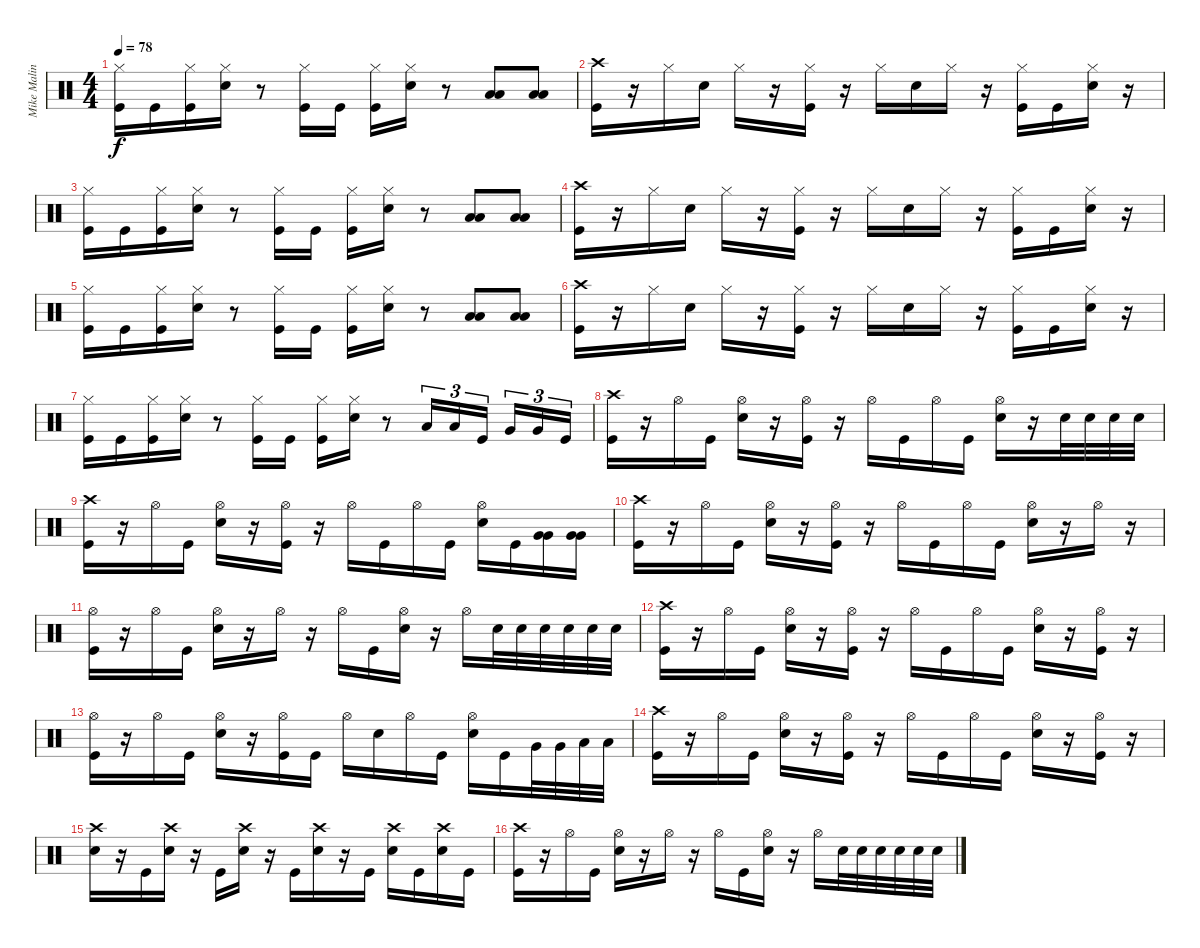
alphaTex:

\track ("Mike Malinin (Drums)" "Mike Malin") {instrument percussion}
\staff {score}
\articulation defaults
\ts (4 4)
\tempo 78
\clef neutral
\ks c
("Hi-Hat (closed)" "Kick (hit)").16{dy f} "Kick (hit)".16 ("Hi-Hat (closed)" "Kick (hit)").16 ("Hi-Hat (closed)" "Snare (hit) 2").16 r.8 ("Hi-Hat (closed)" "Kick (hit)").16 "Kick (hit)".16 ("Hi-Hat (closed)" "Kick (hit)").16 ("Hi-Hat (closed)" "Snare (hit) 2").16 r.8 ("Low Floor Tom (hit)" "Low Floor Tom (hit)").8 ("Low Floor Tom (hit)" "Low Floor Tom (hit)").8 |
("Crash high (hit)" "Kick (hit)").16 r.16 "Hi-Hat (closed)".16 "Snare (hit) 2".16 "Hi-Hat (closed)".16 r.16 ("Hi-Hat (closed)" "Kick (hit)").16 r.16 "Hi-Hat (closed)".16 "Snare (hit) 2".16 "Hi-Hat (closed)".16 r.16 ("Hi-Hat (closed)" "Kick (hit)").16 "Kick (hit)".16 ("Hi-Hat (closed)" "Snare (hit) 2").16 r.16 |
("Hi-Hat (closed)" "Kick (hit)").16 "Kick (hit)".16 ("Hi-Hat (closed)" "Kick (hit)").16 ("Hi-Hat (closed)" "Snare (hit) 2").16 r.8 ("Hi-Hat (closed)" "Kick (hit)").16 "Kick (hit)".16 ("Hi-Hat (closed)" "Kick (hit)").16 ("Hi-Hat (closed)" "Snare (hit) 2").16 r.8 ("Low Floor Tom (hit)" "Low Floor Tom (hit)").8 ("Low Floor Tom (hit)" "Low Floor Tom (hit)").8 |
("Crash high (hit)" "Kick (hit)").16 r.16 "Hi-Hat (closed)".16 "Snare (hit) 2".16 "Hi-Hat (closed)".16 r.16 ("Hi-Hat (closed)" "Kick (hit)").16 r.16 "Hi-Hat (closed)".16 "Snare (hit) 2".16 "Hi-Hat (closed)".16 r.16 ("Hi-Hat (closed)" "Kick (hit)").16 "Kick (hit)".16 ("Hi-Hat (closed)" "Snare (hit) 2").16 r.16 |
("Hi-Hat (closed)" "Kick (hit)").16 "Kick (hit)".16 ("Hi-Hat (closed)" "Kick (hit)").16 ("Hi-Hat (closed)" "Snare (hit) 2").16 r.8 ("Hi-Hat (closed)" "Kick (hit)").16 "Kick (hit)".16 ("Hi-Hat (closed)" "Kick (hit)").16 ("Hi-Hat (closed)" "Snare (hit) 2").16 r.8 ("Low Floor Tom (hit)" "Low Floor Tom (hit)").8 ("Low Floor Tom (hit)" "Low Floor Tom (hit)").8 |
("Crash high (hit)" "Kick (hit)").16 r.16 "Hi-Hat (closed)".16 "Snare (hit) 2".16 "Hi-Hat (closed)".16 r.16 ("Hi-Hat (closed)" "Kick (hit)").16 r.16 "Hi-Hat (closed)".16 "Snare (hit) 2".16 "Hi-Hat (closed)".16 r.16 ("Hi-Hat (closed)" "Kick (hit)").16 "Kick (hit)".16 ("Hi-Hat (closed)" "Snare (hit) 2").16 r.16 |
("Hi-Hat (closed)" "Kick (hit)").16 "Kick (hit)".16 ("Hi-Hat (closed)" "Kick (hit)").16 ("Hi-Hat (closed)" "Snare (hit) 2").16 r.8 ("Hi-Hat (closed)" "Kick (hit)").16 "Kick (hit)".16 ("Hi-Hat (closed)" "Kick (hit)").16 ("Hi-Hat (closed)" "Snare (hit) 2").16 r.8 "Low Tom (hit)".16{tu (3 2)} "Low Tom (hit)".16{tu (3 2)} "Kick (hit)".16{tu (3 2)} "Very Low Tom (hit)".16{tu (3 2)} "Very Low Tom (hit)".16{tu (3 2)} "Kick (hit)".16{tu (3 2)} |
("Crash high (hit)" "Kick (hit)").16 r.16 "Hi-Hat (open)".16 "Kick (hit)".16 ("Hi-Hat (open)" "Snare (hit) 2").16 r.16 ("Hi-Hat (open)" "Kick (hit)").16 r.16 "Hi-Hat (open)".16 "Kick (hit)".16 "Hi-Hat (open)".16 "Kick (hit)".16 ("Hi-Hat (open)" "Snare (hit) 2").16 r.16 "Snare (hit) 2".32 "Snare (hit) 2".32 "Snare (hit) 2".32 "Snare (hit) 2".32 |
("Crash high (hit)" "Kick (hit)").16 r.16 "Hi-Hat (open)".16 "Kick (hit)".16 ("Hi-Hat (open)" "Snare (hit) 2").16 r.16 ("Hi-Hat (open)" "Kick (hit)").16 r.16 "Hi-Hat (open)".16 "Kick (hit)".16 "Hi-Hat (open)".16 "Kick (hit)".16 ("Hi-Hat (open)" "Snare (hit) 2").16 "Kick (hit)".16 ("Very Low Tom (hit)" "Very Low Tom (hit)").16 ("Very Low Tom (hit)" "Very Low Tom (hit)").16 |
("Crash high (hit)" "Kick (hit)").16 r.16 "Hi-Hat (open)".16 "Kick (hit)".16 ("Hi-Hat (open)" "Snare (hit) 2").16 r.16 ("Hi-Hat (open)" "Kick (hit)").16 r.16 "Hi-Hat (open)".16 "Kick (hit)".16 "Hi-Hat (open)".16 "Kick (hit)".16 ("Hi-Hat (open)" "Snare (hit) 2").16 r.16 "Hi-Hat (open)".16 r.16 |
("Hi-Hat (open)" "Kick (hit)").16 r.16 "Hi-Hat (open)".16 "Kick (hit)".16 ("Hi-Hat (open)" "Snare (hit) 2").16 r.16 "Hi-Hat (open)".16 r.16 "Hi-Hat (open)".16 "Kick (hit)".16 ("Hi-Hat (open)" "Snare (hit) 2").16 r.16 "Hi-Hat (open)".16 "Snare (hit) 2".32 "Snare (hit) 2".32 "Snare (hit) 2".32 "Snare (hit) 2".32 "Snare (hit) 2".32 "Snare (hit) 2".32 |
("Crash high (hit)" "Kick (hit)").16 r.16 "Hi-Hat (open)".16 "Kick (hit)".16 ("Hi-Hat (open)" "Snare (hit) 2").16 r.16 ("Hi-Hat (open)" "Kick (hit)").16 r.16 "Hi-Hat (open)".16 "Kick (hit)".16 "Hi-Hat (open)".16 "Kick (hit)".16 ("Hi-Hat (open)" "Snare (hit) 2").16 r.16 ("Hi-Hat (open)" "Kick (hit)").16 r.16 |
("Hi-Hat (open)" "Kick (hit)").16 r.16 "Hi-Hat (open)".16 "Kick (hit)".16 ("Hi-Hat (open)" "Snare (hit) 2").16 r.16 ("Hi-Hat (open)" "Kick (hit)").16 "Kick (hit)".16 "Hi-Hat (open)".16 "Snare (hit) 2".16 "Hi-Hat (open)".16 "Kick (hit)".16 ("Hi-Hat (open)" "Snare (hit) 2").16 "Kick (hit)".16 "Very Low Tom (hit)".32 "Very Low Tom (hit)".32 "Low Floor Tom (hit)".32 "Low Floor Tom (hit)".32 |
("Crash high (hit)" "Kick (hit)").16 r.16 "Hi-Hat (open)".16 "Kick (hit)".16 ("Hi-Hat (open)" "Snare (hit) 2").16 r.16 ("Hi-Hat (open)" "Kick (hit)").16 r.16 "Hi-Hat (open)".16 "Kick (hit)".16 "Hi-Hat (open)".16 "Kick (hit)".16 ("Hi-Hat (open)" "Snare (hit) 2").16 r.16 ("Hi-Hat (open)" "Kick (hit)").16 r.16 |
("Crash high (hit)" "Snare (hit) 2").16 r.16 "Kick (hit)".16 ("Crash high (hit)" "Snare (hit) 2").16 r.16 "Kick (hit)".16 ("Crash high (hit)" "Snare (hit) 2").16 r.16 "Kick (hit)".16 ("Crash high (hit)" "Snare (hit) 2").16 r.16 "Kick (hit)".16 ("Crash high (hit)" "Snare (hit) 2").16 "Kick (hit)".16 ("Crash high (hit)" "Snare (hit) 2").16 "Kick (hit)".16 |
("Crash high (hit)" "Kick (hit)").16 r.16 "Hi-Hat (open)".16 "Kick (hit)".16 ("Hi-Hat (open)" "Snare (hit) 2").16 r.16 "Hi-Hat (open)".16 r.16 "Hi-Hat (open)".16 "Kick (hit)".16 ("Hi-Hat (open)" "Snare (hit) 2").16 r.16 "Hi-Hat (open)".16 "Snare (hit) 2".32 "Snare (hit) 2".32 "Snare (hit) 2".32 "Snare (hit) 2".32 "Snare (hit) 2".32 "Snare (hit) 2".32
